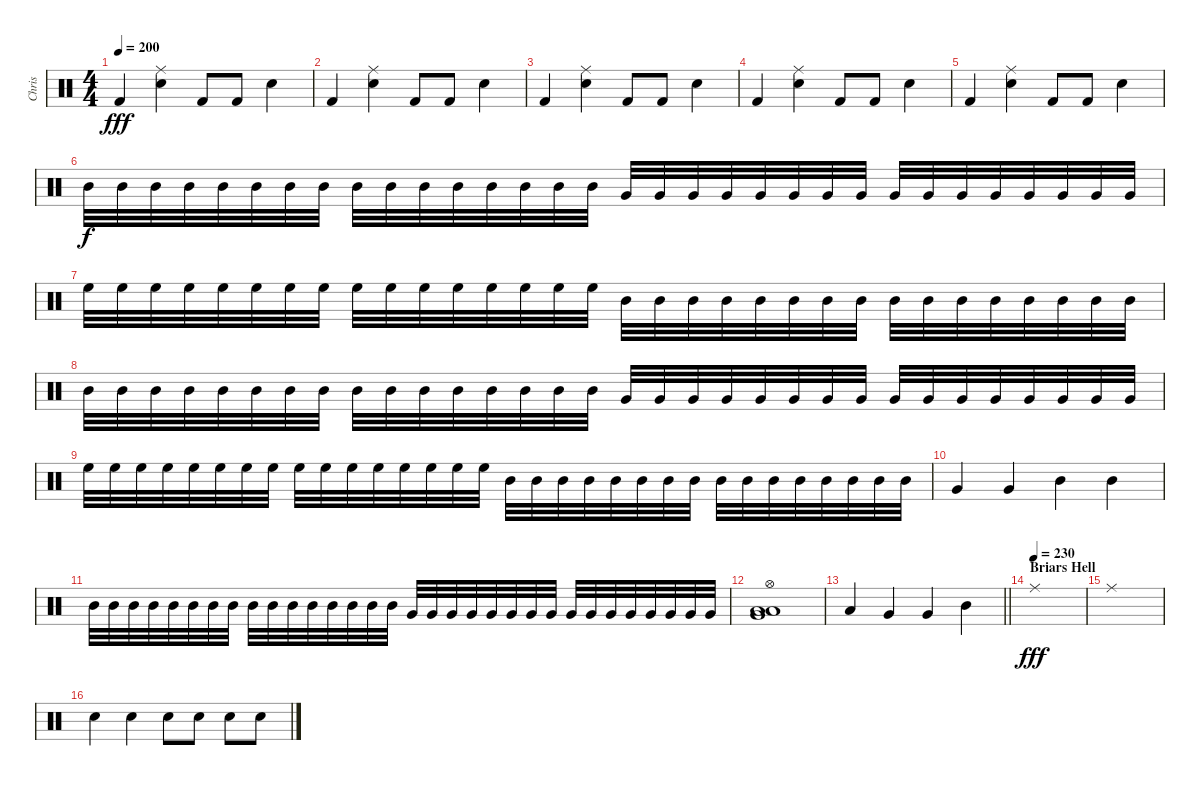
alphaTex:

\track ("Chris" "Chris") {instrument percussion}
\staff {score}
\articulation defaults
\ts (4 4)
\tempo 200
\clef neutral
\ks c "Kick (hit) 2".4{dy fff}
("Ride (middle)" "Electric Snare (hit)").4 "Kick (hit) 2".8 "Kick (hit) 2".8 "Electric Snare (hit)".4 |
"Kick (hit) 2".4 ("Ride (middle)" "Electric Snare (hit)").4 "Kick (hit) 2".8 "Kick (hit) 2".8 "Electric Snare (hit)".4 |
"Kick (hit) 2".4 ("Ride (middle)" "Electric Snare (hit)").4 "Kick (hit) 2".8 "Kick (hit) 2".8 "Electric Snare (hit)".4 |
"Kick (hit) 2".4 ("Ride (middle)" "Electric Snare (hit)").4 "Kick (hit) 2".8 "Kick (hit) 2".8 "Electric Snare (hit)".4 |
"Kick (hit) 2".4 ("Ride (middle)" "Electric Snare (hit)").4 "Kick (hit) 2".8 "Kick (hit) 2".8 "Electric Snare (hit)".4 |
"Mid Tom (hit)".32{dy f} "Mid Tom (hit)".32 "Mid Tom (hit)".32 "Mid Tom (hit)".32 "Mid Tom (hit)".32 "Mid Tom (hit)".32 "Mid Tom (hit)".32 "Mid Tom (hit)".32 "Mid Tom (hit)".32 "Mid Tom (hit)".32 "Mid Tom (hit)".32 "Mid Tom (hit)".32 "Mid Tom (hit)".32 "Mid Tom (hit)".32 "Mid Tom (hit)".32 "Mid Tom (hit)".32 "Very Low Tom (hit)".32 "Very Low Tom (hit)".32 "Very Low Tom (hit)".32 "Very Low Tom (hit)".32 "Very Low Tom (hit)".32 "Very Low Tom (hit)".32 "Very Low Tom (hit)".32 "Very Low Tom (hit)".32 "Very Low Tom (hit)".32 "Very Low Tom (hit)".32 "Very Low Tom (hit)".32 "Very Low Tom (hit)".32 "Very Low Tom (hit)".32 "Very Low Tom (hit)".32 "Very Low Tom (hit)".32 "Very Low Tom (hit)".32 |
"High Floor Tom (hit)".32 "High Floor Tom (hit)".32 "High Floor Tom (hit)".32 "High Floor Tom (hit)".32 "High Floor Tom (hit)".32 "High Floor Tom (hit)".32 "High Floor Tom (hit)".32 "High Floor Tom (hit)".32 "High Floor Tom (hit)".32 "High Floor Tom (hit)".32 "High Floor Tom (hit)".32 "High Floor Tom (hit)".32 "High Floor Tom (hit)".32 "High Floor Tom (hit)".32 "High Floor Tom (hit)".32 "High Floor Tom (hit)".32 "Mid Tom (hit)".32 "Mid Tom (hit)".32 "Mid Tom (hit)".32 "Mid Tom (hit)".32 "Mid Tom (hit)".32 "Mid Tom (hit)".32 "Mid Tom (hit)".32 "Mid Tom (hit)".32 "Mid Tom (hit)".32 "Mid Tom (hit)".32 "Mid Tom (hit)".32 "Mid Tom (hit)".32 "Mid Tom (hit)".32 "Mid Tom (hit)".32 "Mid Tom (hit)".32 "Mid Tom (hit)".32 |
"Mid Tom (hit)".32 "Mid Tom (hit)".32 "Mid Tom (hit)".32 "Mid Tom (hit)".32 "Mid Tom (hit)".32 "Mid Tom (hit)".32 "Mid Tom (hit)".32 "Mid Tom (hit)".32 "Mid Tom (hit)".32 "Mid Tom (hit)".32 "Mid Tom (hit)".32 "Mid Tom (hit)".32 "Mid Tom (hit)".32 "Mid Tom (hit)".32 "Mid Tom (hit)".32 "Mid Tom (hit)".32 "Very Low Tom (hit)".32 "Very Low Tom (hit)".32 "Very Low Tom (hit)".32 "Very Low Tom (hit)".32 "Very Low Tom (hit)".32 "Very Low Tom (hit)".32 "Very Low Tom (hit)".32 "Very Low Tom (hit)".32 "Very Low Tom (hit)".32 "Very Low Tom (hit)".32 "Very Low Tom (hit)".32 "Very Low Tom (hit)".32 "Very Low Tom (hit)".32 "Very Low Tom (hit)".32 "Very Low Tom (hit)".32 "Very Low Tom (hit)".32 |
"High Floor Tom (hit)".32 "High Floor Tom (hit)".32 "High Floor Tom (hit)".32 "High Floor Tom (hit)".32 "High Floor Tom (hit)".32 "High Floor Tom (hit)".32 "High Floor Tom (hit)".32 "High Floor Tom (hit)".32 "High Floor Tom (hit)".32 "High Floor Tom (hit)".32 "High Floor Tom (hit)".32 "High Floor Tom (hit)".32 "High Floor Tom (hit)".32 "High Floor Tom (hit)".32 "High Floor Tom (hit)".32 "High Floor Tom (hit)".32 "Mid Tom (hit)".32 "Mid Tom (hit)".32 "Mid Tom (hit)".32 "Mid Tom (hit)".32 "Mid Tom (hit)".32 "Mid Tom (hit)".32 "Mid Tom (hit)".32 "Mid Tom (hit)".32 "Mid Tom (hit)".32 "Mid Tom (hit)".32 "Mid Tom (hit)".32 "Mid Tom (hit)".32 "Mid Tom (hit)".32 "Mid Tom (hit)".32 "Mid Tom (hit)".32 "Mid Tom (hit)".32 |
"Very Low Tom (hit)".4 "Very Low Tom (hit)".4 "Mid Tom (hit)".4 "Mid Tom (hit)".4 |
"Mid Tom (hit)".32 "Mid Tom (hit)".32 "Mid Tom (hit)".32 "Mid Tom (hit)".32 "Mid Tom (hit)".32 "Mid Tom (hit)".32 "Mid Tom (hit)".32 "Mid Tom (hit)".32 "Mid Tom (hit)".32 "Mid Tom (hit)".32 "Mid Tom (hit)".32 "Mid Tom (hit)".32 "Mid Tom (hit)".32 "Mid Tom (hit)".32 "Mid Tom (hit)".32 "Mid Tom (hit)".32 "Very Low Tom (hit)".32 "Very Low Tom (hit)".32 "Very Low Tom (hit)".32 "Very Low Tom (hit)".32 "Very Low Tom (hit)".32 "Very Low Tom (hit)".32 "Very Low Tom (hit)".32 "Very Low Tom (hit)".32 "Very Low Tom (hit)".32 "Very Low Tom (hit)".32 "Very Low Tom (hit)".32 "Very Low Tom (hit)".32 "Very Low Tom (hit)".32 "Very Low Tom (hit)".32 "Very Low Tom (hit)".32 "Very Low Tom (hit)".32 |
("Very Low Tom (hit)" "Low Floor Tom (hit)" "Low Floor Tom (hit)" "Hi-Hat (open)").1 |
\barLineRight lightlight "Low Tom (hit)".4 "Very Low Tom (hit)".4 "Very Low Tom (hit)".4 "Mid Tom (hit)".4
|
\section ("" "Briars Hell")
\tempo (230)
"Ride (middle)".1{dy fff} |
"Ride (middle)".1 |
"Electric Snare (hit)".4 "Electric Snare (hit)".4 "Electric Snare (hit)".8 "Electric Snare (hit)".8 "Electric Snare (hit)".8 "Electric Snare (hit)".8
